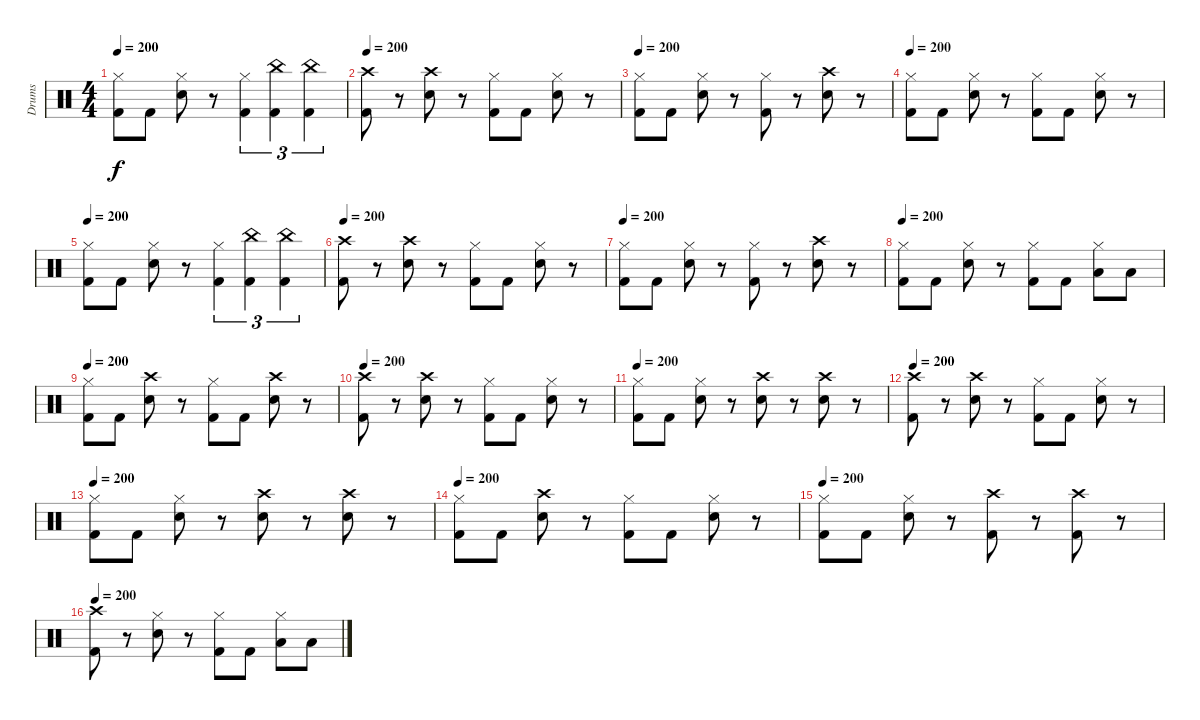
\track ("Drums" "Drums") {instrument percussion}
\staff {score}
\articulation defaults
\ts (4 4)
\tempo 200
\clef neutral
\ks c
("Kick (hit) 2" "Hi-Hat (closed)").8{dy f} "Kick (hit) 2".8 ("Snare (hit) 2" "Hi-Hat (closed)").8 r.8 ("Hi-Hat (closed)" "Kick (hit) 2").4{tu (3 2)} ("China (hit)" "Kick (hit) 2").4{tu (3 2)} ("China (hit)" "Kick (hit) 2").4{tu (3 2)} |
\tempo 200
("Kick (hit) 2" "Crash high (hit)").8 r.8 ("Crash high (hit)" "Snare (hit) 2").8 r.8 ("Hi-Hat (closed)" "Kick (hit) 2").8 "Kick (hit) 2".8 ("Hi-Hat (closed)" "Snare (hit) 2").8 r.8 |
\tempo 200
("Kick (hit) 2" "Hi-Hat (closed)").8 "Kick (hit) 2".8 ("Snare (hit) 2" "Hi-Hat (closed)").8 r.8 ("Hi-Hat (closed)" "Kick (hit) 2").8 r.8 ("Crash high (hit)" "Snare (hit) 2").8 r.8 |
\tempo 200
("Hi-Hat (closed)" "Kick (hit) 2").8 "Kick (hit) 2".8 ("Snare (hit) 2" "Hi-Hat (closed)").8 r.8 ("Hi-Hat (closed)" "Kick (hit) 2").8 "Kick (hit) 2".8 ("Snare (hit) 2" "Hi-Hat (closed)").8 r.8 |
\tempo 200
("Kick (hit) 2" "Hi-Hat (closed)").8 "Kick (hit) 2".8 ("Snare (hit) 2" "Hi-Hat (closed)").8 r.8 ("Hi-Hat (closed)" "Kick (hit) 2").4{tu (3 2)} ("China (hit)" "Kick (hit) 2").4{tu (3 2)} ("China (hit)" "Kick (hit) 2").4{tu (3 2)} |
\tempo 200
("Kick (hit) 2" "Crash high (hit)").8 r.8 ("Crash high (hit)" "Snare (hit) 2").8 r.8 ("Hi-Hat (closed)" "Kick (hit) 2").8 "Kick (hit) 2".8 ("Hi-Hat (closed)" "Snare (hit) 2").8 r.8 |
\tempo 200
("Kick (hit) 2" "Hi-Hat (closed)").8 "Kick (hit) 2".8 ("Snare (hit) 2" "Hi-Hat (closed)").8 r.8 ("Hi-Hat (closed)" "Kick (hit) 2").8 r.8 ("Crash high (hit)" "Snare (hit) 2").8 r.8 |
\tempo 200
("Hi-Hat (closed)" "Kick (hit) 2").8 "Kick (hit) 2".8 ("Snare (hit) 2" "Hi-Hat (closed)").8 r.8 ("Hi-Hat (closed)" "Kick (hit) 2").8 "Kick (hit) 2".8 ("Low Tom (hit)" "Hi-Hat (closed)").8 "Low Tom (hit)".8 |
\tempo 200
("Kick (hit) 2" "Hi-Hat (closed)").8 "Kick (hit) 2".8 ("Crash high (hit)" "Snare (hit) 2").8 r.8 ("Kick (hit) 2" "Hi-Hat (closed)").8 "Kick (hit) 2".8 ("Crash high (hit)" "Snare (hit) 2").8 r.8 |
\tempo 200
("Kick (hit) 2" "Crash high (hit)").8 r.8 ("Crash high (hit)" "Snare (hit) 2").8 r.8 ("Hi-Hat (closed)" "Kick (hit) 2").8 "Kick (hit) 2".8 ("Hi-Hat (closed)" "Snare (hit) 2").8 r.8 |
\tempo 200
("Kick (hit) 2" "Hi-Hat (closed)").8 "Kick (hit) 2".8 ("Snare (hit) 2" "Hi-Hat (closed)").8 r.8 ("Crash high (hit)" "Snare (hit) 2").8 r.8 ("Crash high (hit)" "Snare (hit) 2").8 r.8 |
\tempo 200
("Kick (hit) 2" "Crash high (hit)").8 r.8 ("Crash high (hit)" "Snare (hit) 2").8 r.8 ("Hi-Hat (closed)" "Kick (hit) 2").8 "Kick (hit) 2".8 ("Hi-Hat (closed)" "Snare (hit) 2").8 r.8 |
\tempo 200
("Kick (hit) 2" "Hi-Hat (closed)").8 "Kick (hit) 2".8 ("Snare (hit) 2" "Hi-Hat (closed)").8 r.8 ("Snare (hit) 2" "Crash high (hit)").8 r.8 ("Snare (hit) 2" "Crash high (hit)").8 r.8 |
\tempo 200
("Kick (hit) 2" "Hi-Hat (closed)").8 "Kick (hit) 2".8 ("Crash high (hit)" "Snare (hit) 2").8 r.8 ("Hi-Hat (closed)" "Kick (hit) 2").8 "Kick (hit) 2".8 ("Hi-Hat (closed)" "Snare (hit) 2").8 r.8 |
\tempo 200
("Kick (hit) 2" "Hi-Hat (closed)").8 "Kick (hit) 2".8 ("Snare (hit) 2" "Hi-Hat (closed)").8 r.8 ("Crash high (hit)" "Kick (hit) 2").8 r.8 ("Crash high (hit)" "Kick (hit) 2").8 r.8 |
\tempo 200
("Kick (hit) 2" "Crash high (hit)").8 r.8 ("Hi-Hat (closed)" "Snare (hit) 2").8 r.8 ("Hi-Hat (closed)" "Kick (hit) 2").8 "Kick (hit) 2".8 ("Low Tom (hit)" "Hi-Hat (closed)").8 "Low Tom (hit)".8
